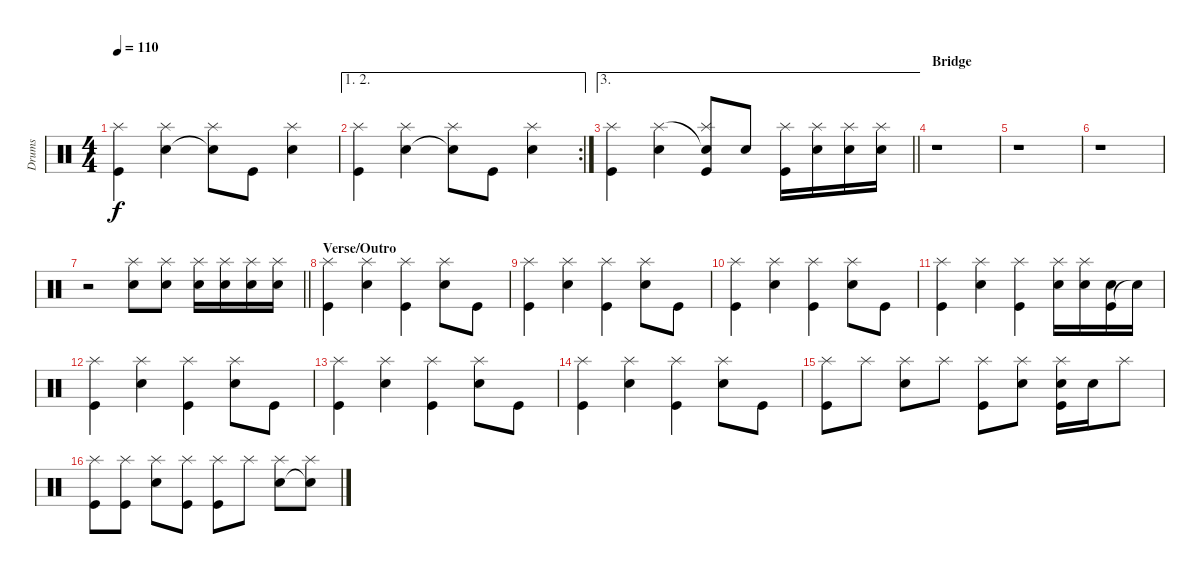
\track ("Drums" "Drums") {instrument percussion}
\staff {score}
\articulation defaults
\ts (4 4)
\tempo 110
\clef neutral
\ks c
("Kick (hit)" "Splash (hit)").4{dy f} ("Electric Snare (hit)" "Splash (hit)").4 ("Electric Snare (hit)"{t} "Splash (hit)").8 "Kick (hit)".8 ("Electric Snare (hit)" "Splash (hit)").4 |
\ae (1 2)
\rc 2
("Kick (hit)" "Splash (hit)").4 ("Electric Snare (hit)" "Splash (hit)").4 ("Electric Snare (hit)"{t} "Splash (hit)").8 "Kick (hit)".8 ("Electric Snare (hit)" "Splash (hit)").4 |
\ae 3
\barLineRight lightlight
("Kick (hit)" "Splash (hit)").4 ("Electric Snare (hit)" "Splash (hit)").4 ("Kick (hit)" "Electric Snare (hit)"{t} "Splash (hit)").8 "Electric Snare (hit)".8 ("Kick (hit)" "Splash (hit)").16 ("Electric Snare (hit)" "Splash (hit)").16 ("Electric Snare (hit)" "Splash (hit)").16 ("Electric Snare (hit)" "Splash (hit)").16 |
\section ("" "Bridge")
r.1 |
r.1 |
r.1 |
\barLineRight lightlight
r.2 ("Electric Snare (hit)" "Splash (hit)").8 ("Electric Snare (hit)" "Splash (hit)").8 ("Electric Snare (hit)" "Splash (hit)").16 ("Electric Snare (hit)" "Splash (hit)").16 ("Electric Snare (hit)" "Splash (hit)").16 ("Electric Snare (hit)" "Splash (hit)").16 |
\section ("" "Verse/Outro")
("Kick (hit)" "Splash (hit)").4 ("Electric Snare (hit)" "Splash (hit)").4 ("Kick (hit)" "Splash (hit)").4 ("Electric Snare (hit)" "Splash (hit)").8 "Kick (hit)".8 |
("Kick (hit)" "Splash (hit)").4 ("Electric Snare (hit)" "Splash (hit)").4 ("Kick (hit)" "Splash (hit)").4 ("Electric Snare (hit)" "Splash (hit)").8 "Kick (hit)".8 |
("Kick (hit)" "Splash (hit)").4 ("Electric Snare (hit)" "Splash (hit)").4 ("Kick (hit)" "Splash (hit)").4 ("Electric Snare (hit)" "Splash (hit)").8 "Kick (hit)".8 |
("Kick (hit)" "Splash (hit)").4 ("Electric Snare (hit)" "Splash (hit)").4 ("Kick (hit)" "Splash (hit)").4 ("Electric Snare (hit)" "Splash (hit)").16 ("Electric Snare (hit)" "Splash (hit)").16 ("Kick (hit)" "Electric Snare (hit)").16 "Electric Snare (hit)"{t}.16 |
("Kick (hit)" "Splash (hit)").4 ("Electric Snare (hit)" "Splash (hit)").4 ("Kick (hit)" "Splash (hit)").4 ("Electric Snare (hit)" "Splash (hit)").8 "Kick (hit)".8 |
("Kick (hit)" "Splash (hit)").4 ("Electric Snare (hit)" "Splash (hit)").4 ("Kick (hit)" "Splash (hit)").4 ("Electric Snare (hit)" "Splash (hit)").8 "Kick (hit)".8 |
("Kick (hit)" "Splash (hit)").4 ("Electric Snare (hit)" "Splash (hit)").4 ("Kick (hit)" "Splash (hit)").4 ("Electric Snare (hit)" "Splash (hit)").8 "Kick (hit)".8 |
("Kick (hit)" "Splash (hit)").8 "Splash (hit)".8 ("Electric Snare (hit)" "Splash (hit)").8 "Splash (hit)".8 ("Kick (hit)" "Splash (hit)").8 ("Electric Snare (hit)" "Splash (hit)").8 ("Kick (hit)" "Electric Snare (hit)" "Splash (hit)").16 "Electric Snare (hit)".16 "Splash (hit)".8 |
("Kick (hit)" "Splash (hit)").8 ("Kick (hit)" "Splash (hit)").8 ("Electric Snare (hit)" "Splash (hit)").8 ("Kick (hit)" "Splash (hit)").8 ("Kick (hit)" "Splash (hit)").8 "Splash (hit)".8 ("Electric Snare (hit)" "Splash (hit)").8 ("Snare (hit)"{t} "Splash (hit)").8
